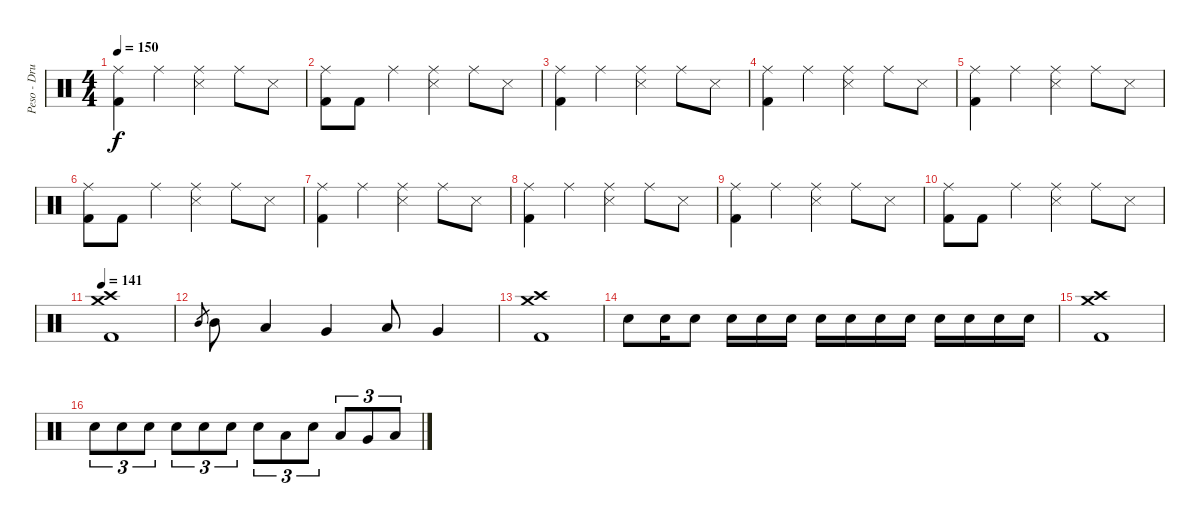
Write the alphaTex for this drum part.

\track ("Peso - Drums" "Peso - Dru") {instrument percussion}
\staff {score}
\articulation defaults
\ts (4 4)
\tempo 150
\clef neutral
\ks c
("Ride (middle)" "Kick (hit) 2").4{dy f} "Ride (middle)".4 ("Ride (middle)" "Snare (side stick) 3").4 "Ride (middle)".8 "Snare (side stick) 3".8 |
("Ride (middle)" "Kick (hit) 2").8 "Kick (hit) 2".8 "Ride (middle)".4 ("Ride (middle)" "Snare (side stick) 3").4 "Ride (middle)".8 "Snare (side stick) 3".8 |
("Ride (middle)" "Kick (hit) 2").4 "Ride (middle)".4 ("Ride (middle)" "Snare (side stick) 3").4 "Ride (middle)".8 "Snare (side stick) 3".8 |
("Ride (middle)" "Kick (hit) 2").4 "Ride (middle)".4 ("Ride (middle)" "Snare (side stick) 3").4 "Ride (middle)".8 "Snare (side stick) 3".8 |
("Ride (middle)" "Kick (hit) 2").4 "Ride (middle)".4 ("Ride (middle)" "Snare (side stick) 3").4 "Ride (middle)".8 "Snare (side stick) 3".8 |
("Ride (middle)" "Kick (hit) 2").8 "Kick (hit) 2".8 "Ride (middle)".4 ("Ride (middle)" "Snare (side stick) 3").4 "Ride (middle)".8 "Snare (side stick) 3".8 |
("Ride (middle)" "Kick (hit) 2").4 "Ride (middle)".4 ("Ride (middle)" "Snare (side stick) 3").4 "Ride (middle)".8 "Snare (side stick) 3".8 |
("Ride (middle)" "Kick (hit) 2").4 "Ride (middle)".4 ("Ride (middle)" "Snare (side stick) 3").4 "Ride (middle)".8 "Snare (side stick) 3".8 |
("Ride (middle)" "Kick (hit) 2").4 "Ride (middle)".4 ("Ride (middle)" "Snare (side stick) 3").4 "Ride (middle)".8 "Snare (side stick) 3".8 |
("Ride (middle)" "Kick (hit) 2").8 "Kick (hit) 2".8 "Ride (middle)".4 ("Ride (middle)" "Snare (side stick) 3").4 "Ride (middle)".8 "Snare (side stick) 3".8 |
\tempo 141
("Crash medium (hit)" "Crash high (hit)" "Kick (hit) 2").1 |
"Mid Tom (hit)".8{gr} "Mid Tom (hit)".8 "Low Tom (hit)".4 "Very Low Tom (hit)".4 "Low Floor Tom (hit)".8 "Very Low Tom (hit)".4 |
("Crash medium (hit)" "Crash high (hit)" "Kick (hit) 2").1 |
"Electric Snare (hit)".8 "Electric Snare (hit)".16 "Electric Snare (hit)".8 "Electric Snare (hit)".16 "Electric Snare (hit)".16 "Electric Snare (hit)".16 "Electric Snare (hit)".16 "Electric Snare (hit)".16 "Electric Snare (hit)".16 "Electric Snare (hit)".16 "Electric Snare (hit)".16 "Electric Snare (hit)".16 "Electric Snare (hit)".16 "Electric Snare (hit)".16 |
("Crash medium (hit)" "Crash high (hit)" "Kick (hit) 2").1 |
"Electric Snare (hit)".8{tu (3 2)} "Electric Snare (hit)".8{tu (3 2)} "Electric Snare (hit)".8{tu (3 2)} "Electric Snare (hit)".8{tu (3 2)} "Electric Snare (hit)".8{tu (3 2)} "Electric Snare (hit)".8{tu (3 2)} "Electric Snare (hit)".8{tu (3 2)} "Low Tom (hit)".8{tu (3 2)} "Electric Snare (hit)".8{tu (3 2)} "Low Tom (hit)".8{tu (3 2)} "Very Low Tom (hit)".8{tu (3 2)} "Low Floor Tom (hit)".8{tu (3 2)}
